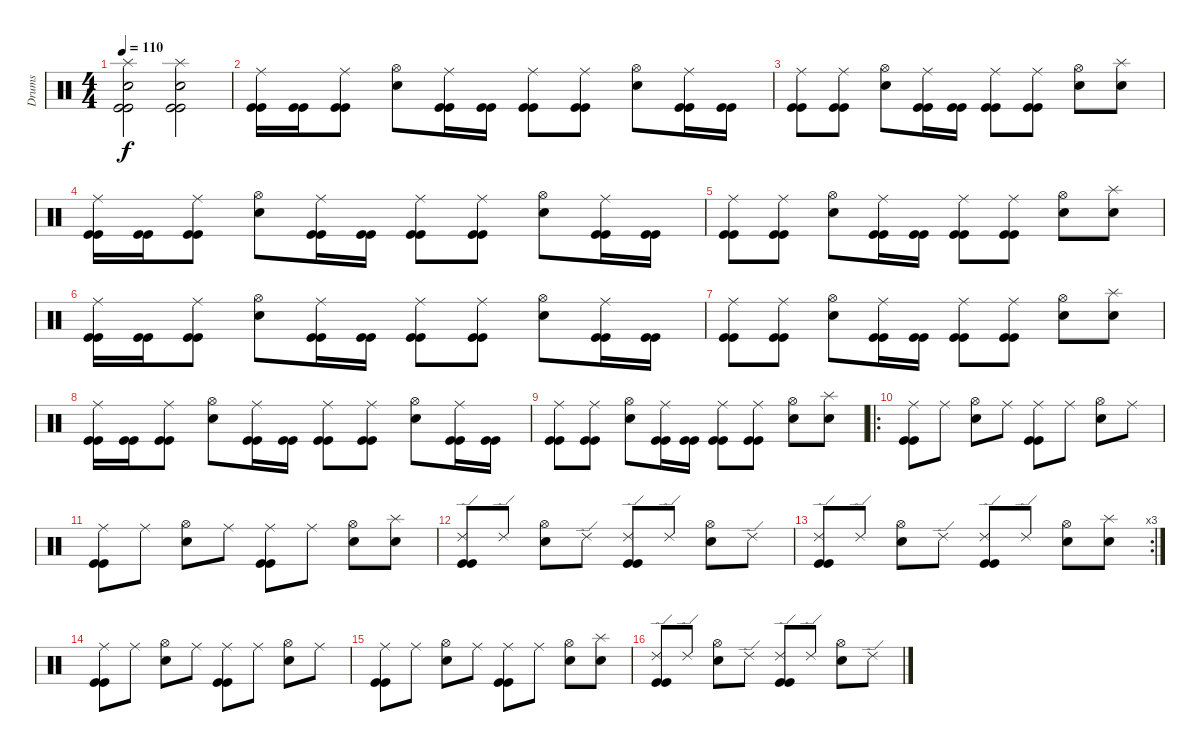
\track ("Drums" "Drums") {instrument percussion}
\staff {score}
\articulation defaults
\ts (4 4)
\tempo 110
\clef neutral
\ks c
("Splash (hit)" "Snare (hit) 2" "Kick (hit)" "Kick (hit)").2{dy f} ("Splash (hit)" "Snare (hit) 2" "Kick (hit)" "Kick (hit)").2 |
("Ride (middle)" "Kick (hit)" "Kick (hit)").16 ("Kick (hit)" "Kick (hit)").16 ("Ride (middle)" "Kick (hit)" "Kick (hit)").8 ("Hi-Hat (open)" "Snare (hit) 2").8 ("Ride (middle)" "Kick (hit)" "Kick (hit)").16 ("Kick (hit)" "Kick (hit)").16 ("Ride (middle)" "Kick (hit)" "Kick (hit)").8 ("Ride (middle)" "Kick (hit)" "Kick (hit)").8 ("Hi-Hat (open)" "Snare (hit) 2").8 ("Ride (middle)" "Kick (hit)" "Kick (hit)").16 ("Kick (hit)" "Kick (hit)").16 |
("Ride (middle)" "Kick (hit)" "Kick (hit)").8 ("Ride (middle)" "Kick (hit)" "Kick (hit)").8 ("Hi-Hat (open)" "Snare (hit) 2").8 ("Ride (middle)" "Kick (hit)" "Kick (hit)").16 ("Kick (hit)" "Kick (hit)").16 ("Ride (middle)" "Kick (hit)" "Kick (hit)").8 ("Ride (middle)" "Kick (hit)" "Kick (hit)").8 ("Hi-Hat (open)" "Snare (hit) 2").8 ("Splash (hit)" "Snare (hit) 2").8 |
("Ride (middle)" "Kick (hit)" "Kick (hit)").16 ("Kick (hit)" "Kick (hit)").16 ("Ride (middle)" "Kick (hit)" "Kick (hit)").8 ("Hi-Hat (open)" "Snare (hit) 2").8 ("Ride (middle)" "Kick (hit)" "Kick (hit)").16 ("Kick (hit)" "Kick (hit)").16 ("Ride (middle)" "Kick (hit)" "Kick (hit)").8 ("Ride (middle)" "Kick (hit)" "Kick (hit)").8 ("Hi-Hat (open)" "Snare (hit) 2").8 ("Ride (middle)" "Kick (hit)" "Kick (hit)").16 ("Kick (hit)" "Kick (hit)").16 |
("Ride (middle)" "Kick (hit)" "Kick (hit)").8 ("Ride (middle)" "Kick (hit)" "Kick (hit)").8 ("Hi-Hat (open)" "Snare (hit) 2").8 ("Ride (middle)" "Kick (hit)" "Kick (hit)").16 ("Kick (hit)" "Kick (hit)").16 ("Ride (middle)" "Kick (hit)" "Kick (hit)").8 ("Ride (middle)" "Kick (hit)" "Kick (hit)").8 ("Hi-Hat (open)" "Snare (hit) 2").8 ("Splash (hit)" "Snare (hit) 2").8 |
("Ride (middle)" "Kick (hit)" "Kick (hit)").16 ("Kick (hit)" "Kick (hit)").16 ("Ride (middle)" "Kick (hit)" "Kick (hit)").8 ("Hi-Hat (open)" "Snare (hit) 2").8 ("Ride (middle)" "Kick (hit)" "Kick (hit)").16 ("Kick (hit)" "Kick (hit)").16 ("Ride (middle)" "Kick (hit)" "Kick (hit)").8 ("Ride (middle)" "Kick (hit)" "Kick (hit)").8 ("Hi-Hat (open)" "Snare (hit) 2").8 ("Ride (middle)" "Kick (hit)" "Kick (hit)").16 ("Kick (hit)" "Kick (hit)").16 |
("Ride (middle)" "Kick (hit)" "Kick (hit)").8 ("Ride (middle)" "Kick (hit)" "Kick (hit)").8 ("Hi-Hat (open)" "Snare (hit) 2").8 ("Ride (middle)" "Kick (hit)" "Kick (hit)").16 ("Kick (hit)" "Kick (hit)").16 ("Ride (middle)" "Kick (hit)" "Kick (hit)").8 ("Ride (middle)" "Kick (hit)" "Kick (hit)").8 ("Hi-Hat (open)" "Snare (hit) 2").8 ("Splash (hit)" "Snare (hit) 2").8 |
("Ride (middle)" "Kick (hit)" "Kick (hit)").16 ("Kick (hit)" "Kick (hit)").16 ("Ride (middle)" "Kick (hit)" "Kick (hit)").8 ("Hi-Hat (open)" "Snare (hit) 2").8 ("Ride (middle)" "Kick (hit)" "Kick (hit)").16 ("Kick (hit)" "Kick (hit)").16 ("Ride (middle)" "Kick (hit)" "Kick (hit)").8 ("Ride (middle)" "Kick (hit)" "Kick (hit)").8 ("Hi-Hat (open)" "Snare (hit) 2").8 ("Ride (middle)" "Kick (hit)" "Kick (hit)").16 ("Kick (hit)" "Kick (hit)").16 |
("Ride (middle)" "Kick (hit)" "Kick (hit)").8 ("Ride (middle)" "Kick (hit)" "Kick (hit)").8 ("Hi-Hat (open)" "Snare (hit) 2").8 ("Ride (middle)" "Kick (hit)" "Kick (hit)").16 ("Kick (hit)" "Kick (hit)").16 ("Ride (middle)" "Kick (hit)" "Kick (hit)").8 ("Ride (middle)" "Kick (hit)" "Kick (hit)").8 ("Hi-Hat (open)" "Snare (hit) 2").8 ("Splash (hit)" "Snare (hit) 2").8 |
\ro
("Ride (middle)" "Kick (hit)" "Kick (hit)").8 "Ride (middle)".8 ("Hi-Hat (open)" "Snare (hit) 2").8 "Ride (middle)".8 ("Ride (middle)" "Kick (hit)" "Kick (hit)").8 "Ride (middle)".8 ("Hi-Hat (open)" "Snare (hit) 2").8 "Ride (middle)".8 |
("Ride (middle)" "Kick (hit)" "Kick (hit)").8 "Ride (middle)".8 ("Hi-Hat (open)" "Snare (hit) 2").8 "Ride (middle)".8 ("Ride (middle)" "Kick (hit)" "Kick (hit)").8 "Ride (middle)".8 ("Hi-Hat (open)" "Snare (hit) 2").8 ("Splash (hit)" "Snare (hit) 2").8 |
("Ride (edge) 2" "Kick (hit)" "Kick (hit)").8 "Ride (edge) 2".8 ("Hi-Hat (open)" "Snare (hit) 2").8 "Ride (edge) 2".8 ("Ride (edge) 2" "Kick (hit)" "Kick (hit)").8 "Ride (edge) 2".8 ("Hi-Hat (open)" "Snare (hit) 2").8 "Ride (edge) 2".8 |
\rc 3
("Ride (edge) 2" "Kick (hit)" "Kick (hit)").8 "Ride (edge) 2".8 ("Hi-Hat (open)" "Snare (hit) 2").8 "Ride (edge) 2".8 ("Ride (edge) 2" "Kick (hit)" "Kick (hit)").8 "Ride (edge) 2".8 ("Hi-Hat (open)" "Snare (hit) 2").8 ("Splash (hit)" "Snare (hit) 2").8 |
("Ride (middle)" "Kick (hit)" "Kick (hit)").8 "Ride (middle)".8 ("Hi-Hat (open)" "Snare (hit) 2").8 "Ride (middle)".8 ("Ride (middle)" "Kick (hit)" "Kick (hit)").8 "Ride (middle)".8 ("Hi-Hat (open)" "Snare (hit) 2").8 "Ride (middle)".8 |
("Ride (middle)" "Kick (hit)" "Kick (hit)").8 "Ride (middle)".8 ("Hi-Hat (open)" "Snare (hit) 2").8 "Ride (middle)".8 ("Ride (middle)" "Kick (hit)" "Kick (hit)").8 "Ride (middle)".8 ("Hi-Hat (open)" "Snare (hit) 2").8 ("Splash (hit)" "Snare (hit) 2").8 |
("Ride (edge) 2" "Kick (hit)" "Kick (hit)").8 "Ride (edge) 2".8 ("Hi-Hat (open)" "Snare (hit) 2").8 "Ride (edge) 2".8 ("Ride (edge) 2" "Kick (hit)" "Kick (hit)").8 "Ride (edge) 2".8 ("Hi-Hat (open)" "Snare (hit) 2").8 "Ride (edge) 2".8
